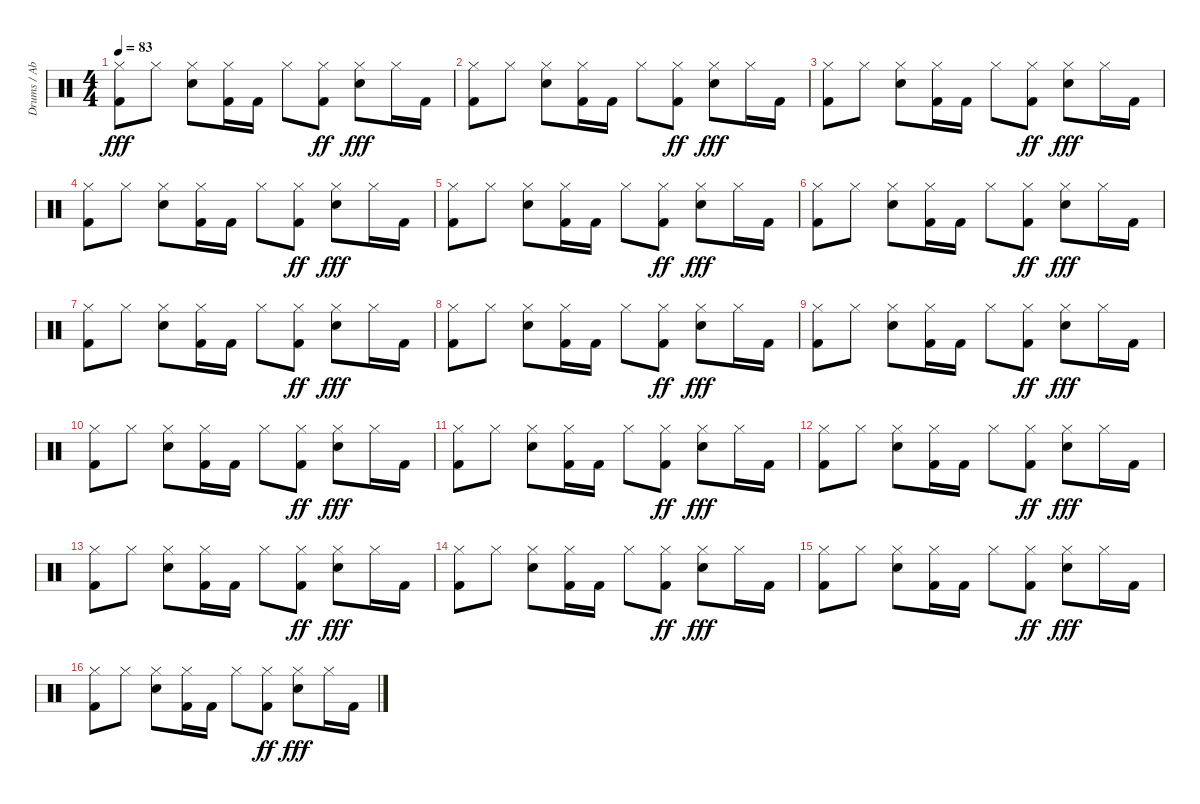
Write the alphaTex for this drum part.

\track ("Drums / Abe Cunningham" "Drums / Ab") {instrument percussion}
\staff {score}
\articulation defaults
\ts (4 4)
\tempo 83
\clef neutral
\ks c
("Hi-Hat (closed)" "Kick (hit) 2").8{dy fff} "Hi-Hat (closed)".8 ("Hi-Hat (closed)" "Electric Snare (hit)").8 ("Hi-Hat (closed)" "Kick (hit) 2").16 "Kick (hit) 2".16 "Hi-Hat (closed)".8 ("Hi-Hat (closed)" "Kick (hit) 2").8{dy ff} ("Hi-Hat (closed)" "Electric Snare (hit)").8{dy fff} "Hi-Hat (closed)".16 "Kick (hit) 2".16 |
("Hi-Hat (closed)" "Kick (hit) 2").8 "Hi-Hat (closed)".8 ("Hi-Hat (closed)" "Electric Snare (hit)").8 ("Hi-Hat (closed)" "Kick (hit) 2").16 "Kick (hit) 2".16 "Hi-Hat (closed)".8 ("Hi-Hat (closed)" "Kick (hit) 2").8{dy ff} ("Hi-Hat (closed)" "Electric Snare (hit)").8{dy fff} "Hi-Hat (closed)".16 "Kick (hit) 2".16 |
("Hi-Hat (closed)" "Kick (hit) 2").8 "Hi-Hat (closed)".8 ("Hi-Hat (closed)" "Electric Snare (hit)").8 ("Hi-Hat (closed)" "Kick (hit) 2").16 "Kick (hit) 2".16 "Hi-Hat (closed)".8 ("Hi-Hat (closed)" "Kick (hit) 2").8{dy ff} ("Hi-Hat (closed)" "Electric Snare (hit)").8{dy fff} "Hi-Hat (closed)".16 "Kick (hit) 2".16 |
("Hi-Hat (closed)" "Kick (hit) 2").8 "Hi-Hat (closed)".8 ("Hi-Hat (closed)" "Electric Snare (hit)").8 ("Hi-Hat (closed)" "Kick (hit) 2").16 "Kick (hit) 2".16 "Hi-Hat (closed)".8 ("Hi-Hat (closed)" "Kick (hit) 2").8{dy ff} ("Hi-Hat (closed)" "Electric Snare (hit)").8{dy fff} "Hi-Hat (closed)".16 "Kick (hit) 2".16 |
("Hi-Hat (closed)" "Kick (hit) 2").8 "Hi-Hat (closed)".8 ("Hi-Hat (closed)" "Electric Snare (hit)").8 ("Hi-Hat (closed)" "Kick (hit) 2").16 "Kick (hit) 2".16 "Hi-Hat (closed)".8 ("Hi-Hat (closed)" "Kick (hit) 2").8{dy ff} ("Hi-Hat (closed)" "Electric Snare (hit)").8{dy fff} "Hi-Hat (closed)".16 "Kick (hit) 2".16 |
("Hi-Hat (closed)" "Kick (hit) 2").8 "Hi-Hat (closed)".8 ("Hi-Hat (closed)" "Electric Snare (hit)").8 ("Hi-Hat (closed)" "Kick (hit) 2").16 "Kick (hit) 2".16 "Hi-Hat (closed)".8 ("Hi-Hat (closed)" "Kick (hit) 2").8{dy ff} ("Hi-Hat (closed)" "Electric Snare (hit)").8{dy fff} "Hi-Hat (closed)".16 "Kick (hit) 2".16 |
("Hi-Hat (closed)" "Kick (hit) 2").8 "Hi-Hat (closed)".8 ("Hi-Hat (closed)" "Electric Snare (hit)").8 ("Hi-Hat (closed)" "Kick (hit) 2").16 "Kick (hit) 2".16 "Hi-Hat (closed)".8 ("Hi-Hat (closed)" "Kick (hit) 2").8{dy ff} ("Hi-Hat (closed)" "Electric Snare (hit)").8{dy fff} "Hi-Hat (closed)".16 "Kick (hit) 2".16 |
("Hi-Hat (closed)" "Kick (hit) 2").8 "Hi-Hat (closed)".8 ("Hi-Hat (closed)" "Electric Snare (hit)").8 ("Hi-Hat (closed)" "Kick (hit) 2").16 "Kick (hit) 2".16 "Hi-Hat (closed)".8 ("Hi-Hat (closed)" "Kick (hit) 2").8{dy ff} ("Hi-Hat (closed)" "Electric Snare (hit)").8{dy fff} "Hi-Hat (closed)".16 "Kick (hit) 2".16 |
("Hi-Hat (closed)" "Kick (hit) 2").8 "Hi-Hat (closed)".8 ("Hi-Hat (closed)" "Electric Snare (hit)").8 ("Hi-Hat (closed)" "Kick (hit) 2").16 "Kick (hit) 2".16 "Hi-Hat (closed)".8 ("Hi-Hat (closed)" "Kick (hit) 2").8{dy ff} ("Hi-Hat (closed)" "Electric Snare (hit)").8{dy fff} "Hi-Hat (closed)".16 "Kick (hit) 2".16 |
("Hi-Hat (closed)" "Kick (hit) 2").8 "Hi-Hat (closed)".8 ("Hi-Hat (closed)" "Electric Snare (hit)").8 ("Hi-Hat (closed)" "Kick (hit) 2").16 "Kick (hit) 2".16 "Hi-Hat (closed)".8 ("Hi-Hat (closed)" "Kick (hit) 2").8{dy ff} ("Hi-Hat (closed)" "Electric Snare (hit)").8{dy fff} "Hi-Hat (closed)".16 "Kick (hit) 2".16 |
("Hi-Hat (closed)" "Kick (hit) 2").8 "Hi-Hat (closed)".8 ("Hi-Hat (closed)" "Electric Snare (hit)").8 ("Hi-Hat (closed)" "Kick (hit) 2").16 "Kick (hit) 2".16 "Hi-Hat (closed)".8 ("Hi-Hat (closed)" "Kick (hit) 2").8{dy ff} ("Hi-Hat (closed)" "Electric Snare (hit)").8{dy fff} "Hi-Hat (closed)".16 "Kick (hit) 2".16 |
("Hi-Hat (closed)" "Kick (hit) 2").8 "Hi-Hat (closed)".8 ("Hi-Hat (closed)" "Electric Snare (hit)").8 ("Hi-Hat (closed)" "Kick (hit) 2").16 "Kick (hit) 2".16 "Hi-Hat (closed)".8 ("Hi-Hat (closed)" "Kick (hit) 2").8{dy ff} ("Hi-Hat (closed)" "Electric Snare (hit)").8{dy fff} "Hi-Hat (closed)".16 "Kick (hit) 2".16 |
("Hi-Hat (closed)" "Kick (hit) 2").8{volume 11} "Hi-Hat (closed)".8 ("Hi-Hat (closed)" "Electric Snare (hit)").8 ("Hi-Hat (closed)" "Kick (hit) 2").16 "Kick (hit) 2".16 "Hi-Hat (closed)".8 ("Hi-Hat (closed)" "Kick (hit) 2").8{dy ff} ("Hi-Hat (closed)" "Electric Snare (hit)").8{dy fff} "Hi-Hat (closed)".16 "Kick (hit) 2".16 |
("Hi-Hat (closed)" "Kick (hit) 2").8 "Hi-Hat (closed)".8 ("Hi-Hat (closed)" "Electric Snare (hit)").8 ("Hi-Hat (closed)" "Kick (hit) 2").16 "Kick (hit) 2".16 "Hi-Hat (closed)".8 ("Hi-Hat (closed)" "Kick (hit) 2").8{dy ff} ("Hi-Hat (closed)" "Electric Snare (hit)").8{dy fff} "Hi-Hat (closed)".16 "Kick (hit) 2".16 |
("Hi-Hat (closed)" "Kick (hit) 2").8{volume 7} "Hi-Hat (closed)".8 ("Hi-Hat (closed)" "Electric Snare (hit)").8 ("Hi-Hat (closed)" "Kick (hit) 2").16 "Kick (hit) 2".16 "Hi-Hat (closed)".8 ("Hi-Hat (closed)" "Kick (hit) 2").8{dy ff} ("Hi-Hat (closed)" "Electric Snare (hit)").8{dy fff} "Hi-Hat (closed)".16 "Kick (hit) 2".16 |
("Hi-Hat (closed)" "Kick (hit) 2").8 "Hi-Hat (closed)".8 ("Hi-Hat (closed)" "Electric Snare (hit)").8 ("Hi-Hat (closed)" "Kick (hit) 2").16 "Kick (hit) 2".16 "Hi-Hat (closed)".8 ("Hi-Hat (closed)" "Kick (hit) 2").8{dy ff} ("Hi-Hat (closed)" "Electric Snare (hit)").8{dy fff} "Hi-Hat (closed)".16 "Kick (hit) 2".16
